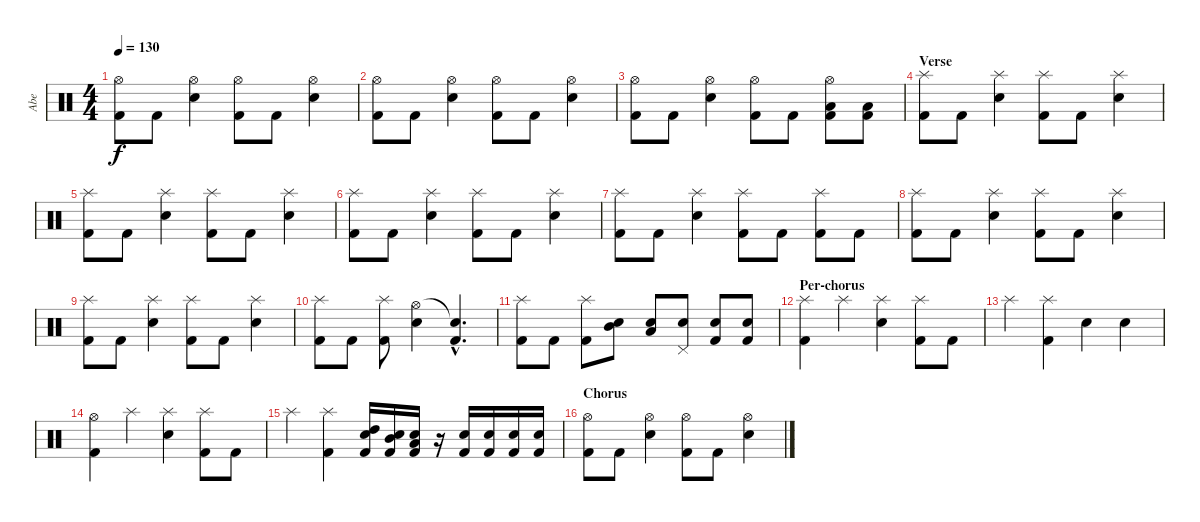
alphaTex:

\track ("Abe" "Abe") {instrument percussion}
\staff {score}
\articulation defaults
\ts (4 4)
\tempo 130
\clef neutral
\ks c
("Hi-Hat (open)" "Kick (hit) 2").8{dy f} "Kick (hit) 2".8 ("Hi-Hat (open)" "Snare (hit) 2").4 ("Hi-Hat (open)" "Kick (hit) 2").8 "Kick (hit) 2".8 ("Hi-Hat (open)" "Snare (hit) 2").4 |
("Hi-Hat (open)" "Kick (hit) 2").8 "Kick (hit) 2".8 ("Hi-Hat (open)" "Snare (hit) 2").4 ("Hi-Hat (open)" "Kick (hit) 2").8 "Kick (hit) 2".8 ("Hi-Hat (open)" "Snare (hit) 2").4 |
("Hi-Hat (open)" "Kick (hit) 2").8 "Kick (hit) 2".8 ("Hi-Hat (open)" "Snare (hit) 2").4 ("Hi-Hat (open)" "Kick (hit) 2").8 "Kick (hit) 2".8 ("Hi-Hat (open)" "Kick (hit) 2" "Low Floor Tom (hit)").8 ("Kick (hit) 2" "Low Floor Tom (hit)").8 |
\section ("" "Verse")
("Splash (hit)" "Kick (hit) 2").8 "Kick (hit) 2".8 ("Splash (hit)" "Snare (hit) 2").4 ("Splash (hit)" "Kick (hit) 2").8 "Kick (hit) 2".8 ("Splash (hit)" "Snare (hit) 2").4 |
("Splash (hit)" "Kick (hit) 2").8 "Kick (hit) 2".8 ("Splash (hit)" "Snare (hit) 2").4 ("Splash (hit)" "Kick (hit) 2").8 "Kick (hit) 2".8 ("Splash (hit)" "Snare (hit) 2").4 |
("Splash (hit)" "Kick (hit) 2").8 "Kick (hit) 2".8 ("Splash (hit)" "Snare (hit) 2").4 ("Splash (hit)" "Kick (hit) 2").8 "Kick (hit) 2".8 ("Splash (hit)" "Snare (hit) 2").4 |
("Splash (hit)" "Kick (hit) 2").8 "Kick (hit) 2".8 ("Splash (hit)" "Snare (hit) 2").4 ("Splash (hit)" "Kick (hit) 2").8 "Kick (hit) 2".8 ("Splash (hit)" "Kick (hit) 2").8 "Kick (hit) 2".8 |
("Splash (hit)" "Kick (hit) 2").8 "Kick (hit) 2".8 ("Splash (hit)" "Snare (hit) 2").4 ("Splash (hit)" "Kick (hit) 2").8 "Kick (hit) 2".8 ("Splash (hit)" "Snare (hit) 2").4 |
("Splash (hit)" "Kick (hit) 2").8 "Kick (hit) 2".8 ("Splash (hit)" "Snare (hit) 2").4 ("Splash (hit)" "Kick (hit) 2").8 "Kick (hit) 2".8 ("Splash (hit)" "Snare (hit) 2").4 |
("Splash (hit)" "Kick (hit) 2").8 "Kick (hit) 2".8 ("Splash (hit)" "Kick (hit) 2").8 ("Hi-Hat (open)" "Snare (hit) 2").4 ("Snare (hit)"{hac t} "Kick (hit) 2"{hac}).4{d} |
("Splash (hit)" "Kick (hit) 2").8 "Kick (hit) 2".8 ("Splash (hit)" "Kick (hit) 2").8 ("Snare (hit) 2" "Mid Tom (hit)").8 ("Snare (hit) 2" "Low Tom (hit)").8 ("Snare (hit) 2" "Pedal Hi-Hat (hit)").8 ("Snare (hit) 2" "Kick (hit) 2").8 ("Snare (hit) 2" "Kick (hit) 2").8 |
\section ("" "Per-chorus")
("Splash (hit)" "Kick (hit) 2").4 "Splash (hit)".4 ("Splash (hit)" "Snare (hit) 2").4 ("Splash (hit)" "Kick (hit) 2").8 "Kick (hit) 2".8 |
"Splash (hit)".4 ("Splash (hit)" "Kick (hit) 2").4 "Snare (hit) 2".4 "Snare (hit) 2".4 |
("Hi-Hat (open)" "Kick (hit) 2").4 "Splash (hit)".4 ("Splash (hit)" "Snare (hit) 2").4 ("Splash (hit)" "Kick (hit) 2").8 "Kick (hit) 2".8 |
"Splash (hit)".4 ("Splash (hit)" "Kick (hit) 2").4 ("Kick (hit) 2" "Snare (hit) 2" "High Tom (hit)").16 ("Kick (hit) 2" "Snare (hit) 2" "Mid Tom (hit)").16 ("Kick (hit) 2" "Snare (hit) 2" "Low Tom (hit)").16 r.16 ("Kick (hit) 2" "Snare (hit) 2").16 ("Kick (hit) 2" "Snare (hit) 2").16 ("Kick (hit) 2" "Snare (hit) 2").16 ("Kick (hit) 2" "Snare (hit) 2").16 |
\section ("" "Chorus")
("Hi-Hat (open)" "Kick (hit) 2").8 "Kick (hit) 2".8 ("Hi-Hat (open)" "Snare (hit) 2").4 ("Hi-Hat (open)" "Kick (hit) 2").8 "Kick (hit) 2".8 ("Hi-Hat (open)" "Snare (hit) 2").4
